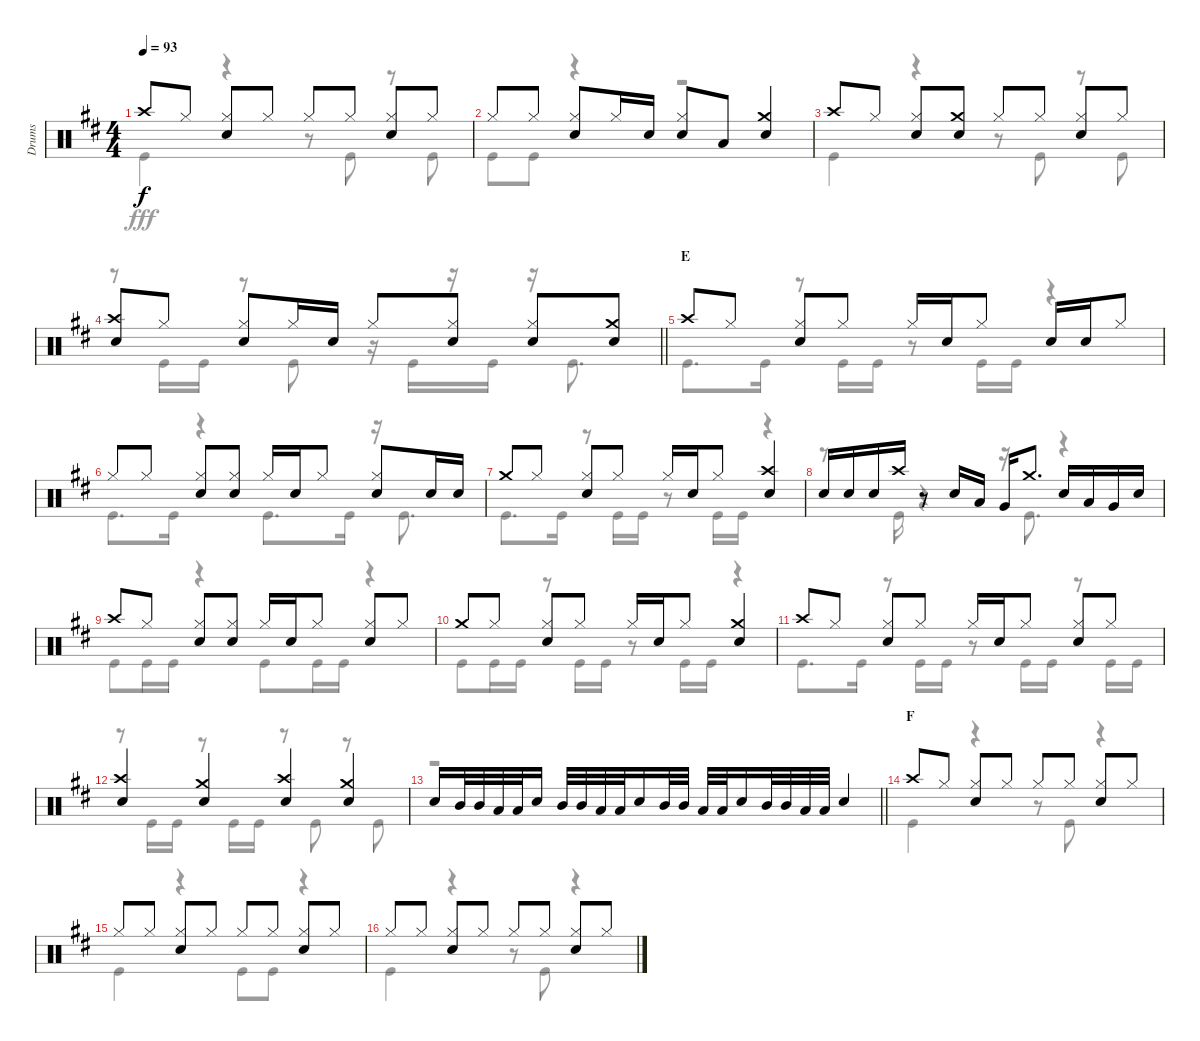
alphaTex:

\track ("Drums" "Drums") {instrument percussion}
\staff {score}
\articulation defaults
\voice
\ts (4 4)
\tempo 93
\clef neutral
\ks d "Crash high (hit)".8{dy f} "Hi-Hat (closed)".8
("Hi-Hat (closed)" "Snare (hit) 2").8 "Hi-Hat (closed)".8 "Hi-Hat (closed)".8 "Hi-Hat (closed)".8 ("Hi-Hat (closed)" "Snare (hit) 2").8 "Hi-Hat (closed)".8 |
"Hi-Hat (closed)".8 "Hi-Hat (closed)".8 ("Hi-Hat (closed)" "Snare (hit) 2").8 "Hi-Hat (closed)".16 "Snare (hit) 2".16 ("Snare (hit) 2" "Hi-Hat (closed)").8 "Low Tom (hit)".8 ("Crash medium (hit)" "Snare (hit) 2").4 |
"Crash high (hit)".8 "Hi-Hat (closed)".8 ("Hi-Hat (closed)" "Snare (hit) 2").8 ("Crash medium (hit)" "Snare (hit) 2").8 "Hi-Hat (closed)".8 "Hi-Hat (closed)".8 ("Hi-Hat (closed)" "Snare (hit) 2").8 "Hi-Hat (closed)".8 |
\barLineRight lightlight
("Crash high (hit)" "Snare (hit) 2").8 "Hi-Hat (closed)".8 ("Hi-Hat (closed)" "Snare (hit) 2").8 "Hi-Hat (closed)".16 "Snare (hit) 2".16 "Hi-Hat (closed)".8 ("Hi-Hat (closed)" "Snare (hit) 2").8 ("Hi-Hat (closed)" "Snare (hit) 2").8 ("Crash medium (hit)" "Snare (hit) 2").8 |
\section ("" "E")
"Crash high (hit)".8 "Hi-Hat (closed)".8 ("Hi-Hat (closed)" "Snare (hit) 2").8 "Hi-Hat (closed)".8 "Hi-Hat (closed)".16 "Snare (hit) 2".16 "Hi-Hat (closed)".8 "Snare (hit) 2".16 "Snare (hit) 2".16 "Hi-Hat (closed)".8 |
"Hi-Hat (closed)".8 "Hi-Hat (closed)".8 ("Hi-Hat (closed)" "Snare (hit) 2").8 ("Hi-Hat (closed)" "Snare (hit) 2").8 "Hi-Hat (closed)".16 "Snare (hit) 2".16 "Hi-Hat (closed)".8 ("Hi-Hat (closed)" "Snare (hit) 2").8 "Snare (hit) 2".16 "Snare (hit) 2".16 |
"Crash medium (hit)".8 "Hi-Hat (closed)".8 ("Hi-Hat (closed)" "Snare (hit) 2").8 "Hi-Hat (closed)".8 "Hi-Hat (closed)".16 "Snare (hit) 2".16 "Hi-Hat (closed)".8 ("Crash high (hit)" "Snare (hit) 2").4 |
"Snare (hit) 2".16 "Snare (hit) 2".16 "Snare (hit) 2".16 "Crash high (hit)".16 r.8 "Snare (hit) 2".16 "Low Tom (hit)".16 "Very Low Tom (hit)".16 "Crash medium (hit)".8{d} "Snare (hit) 2".16 "Low Tom (hit)".16 "Very Low Tom (hit)".16 "Snare (hit) 2".16 |
"Crash high (hit)".8 "Hi-Hat (closed)".8 ("Hi-Hat (closed)" "Snare (hit) 2").8 ("Hi-Hat (closed)" "Snare (hit) 2").8 "Hi-Hat (closed)".16 "Snare (hit) 2".16 "Hi-Hat (closed)".8 ("Hi-Hat (closed)" "Snare (hit) 2").8 "Hi-Hat (closed)".8 |
"Crash medium (hit)".8 "Hi-Hat (closed)".8 ("Hi-Hat (closed)" "Snare (hit) 2").8 "Hi-Hat (closed)".8 "Hi-Hat (closed)".16 "Snare (hit) 2".16 "Hi-Hat (closed)".8 ("Crash medium (hit)" "Snare (hit) 2").4 |
"Crash high (hit)".8 "Hi-Hat (closed)".8 ("Hi-Hat (closed)" "Snare (hit) 2").8 "Hi-Hat (closed)".8 "Hi-Hat (closed)".16 "Snare (hit) 2".16 "Hi-Hat (closed)".8 ("Hi-Hat (closed)" "Snare (hit) 2").8 "Hi-Hat (closed)".8 |
("Crash high (hit)" "Snare (hit) 2").4 ("Crash medium (hit)" "Snare (hit) 2").4 ("Crash high (hit)" "Snare (hit) 2").4 ("Crash medium (hit)" "Snare (hit) 2").4 |
\barLineRight lightlight "Snare (hit) 2".16 "Mid Tom (hit)".32 "Mid Tom (hit)".32 "Low Tom (hit)".32 "Low Tom (hit)".32 "Snare (hit) 2".16 "Mid Tom (hit)".32 "Mid Tom (hit)".32 "Low Tom (hit)".32 "Low Tom (hit)".32 "Snare (hit) 2".16 "Mid Tom (hit)".32 "Mid Tom (hit)".32 "Low Tom (hit)".32 "Low Tom (hit)".32 "Snare (hit) 2".16 "Mid Tom (hit)".32 "Mid Tom (hit)".32 "Low Tom (hit)".32 "Low Tom (hit)".32 "Snare (hit) 2".4
|
\section ("" "F")
"Crash high (hit)".8 "Hi-Hat (closed)".8 ("Hi-Hat (closed)" "Snare (hit) 2").8 "Hi-Hat (closed)".8 "Hi-Hat (closed)".8 "Hi-Hat (closed)".8 ("Hi-Hat (closed)" "Snare (hit) 2").8 "Hi-Hat (closed)".8 |
"Hi-Hat (closed)".8 "Hi-Hat (closed)".8 ("Hi-Hat (closed)" "Snare (hit) 2").8 "Hi-Hat (closed)".8 "Hi-Hat (closed)".8 "Hi-Hat (closed)".8 ("Hi-Hat (closed)" "Snare (hit) 2").8 "Hi-Hat (closed)".8 |
"Hi-Hat (closed)".8 "Hi-Hat (closed)".8 ("Hi-Hat (closed)" "Snare (hit) 2").8 "Hi-Hat (closed)".8 "Hi-Hat (closed)".8 "Hi-Hat (closed)".8 ("Hi-Hat (closed)" "Snare (hit) 2").8 "Hi-Hat (closed)".8
\voice
\clef neutral
\ottava regular
\simile none
\ks d "Kick (hit)".4{dy fff}
r.4 r.8 "Kick (hit)".8 r.8 "Kick (hit)".8 |
"Kick (hit)".8 "Kick (hit)".8 r.4 r.2 |
"Kick (hit)".4 r.4 r.8 "Kick (hit)".8 r.8 "Kick (hit)".8 |
\barLineRight lightlight
r.8 "Kick (hit)".16 "Kick (hit)".16 r.8 "Kick (hit)".8 r.16 "Kick (hit)".16 r.16 "Kick (hit)".16 r.16 "Kick (hit)".8{d} |
"Kick (hit)".8{d} "Kick (hit)".16 r.8 "Kick (hit)".16 "Kick (hit)".16 r.8 "Kick (hit)".16 "Kick (hit)".16 r.4 |
"Kick (hit)".8{d} "Kick (hit)".16 r.4 "Kick (hit)".8{d} "Kick (hit)".16 r.16 "Kick (hit)".8{d} |
"Kick (hit)".8{d} "Kick (hit)".16 r.8 "Kick (hit)".16 "Kick (hit)".16 r.8 "Kick (hit)".16 "Kick (hit)".16 r.4 |
r.8{d} "Kick (hit)".16 r.4 r.16 "Kick (hit)".8{d} r.4 |
"Kick (hit)".8 "Kick (hit)".16 "Kick (hit)".16 r.4 "Kick (hit)".8 "Kick (hit)".16 "Kick (hit)".16 r.4 |
"Kick (hit)".8 "Kick (hit)".16 "Kick (hit)".16 r.8 "Kick (hit)".16 "Kick (hit)".16 r.8 "Kick (hit)".16 "Kick (hit)".16 r.4 |
"Kick (hit)".8{d} "Kick (hit)".16 r.8 "Kick (hit)".16 "Kick (hit)".16 r.8 "Kick (hit)".16 "Kick (hit)".16 r.8 "Kick (hit)".16 "Kick (hit)".16 |
r.8 "Kick (hit)".16 "Kick (hit)".16 r.8 "Kick (hit)".16 "Kick (hit)".16 r.8 "Kick (hit)".8 r.8 "Kick (hit)".8 |
\barLineRight lightlight
r.1 |
"Kick (hit)".4 r.4 r.8 "Kick (hit)".8 r.4 |
"Kick (hit)".4 r.4 "Kick (hit)".8 "Kick (hit)".8 r.4 |
"Kick (hit)".4 r.4 r.8 "Kick (hit)".8 r.4
